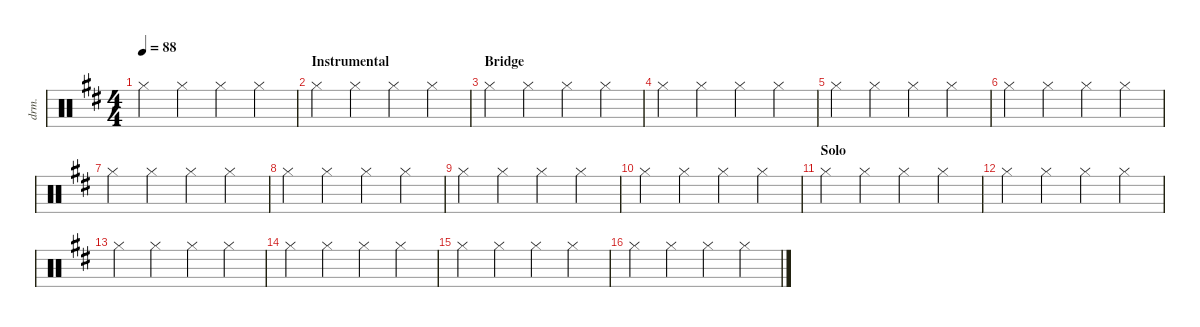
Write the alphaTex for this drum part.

\defaultSystemsLayout 4
\hideDynamics
\bracketExtendMode nobrackets
\otherSystemsTrackNameOrientation horizontal
\track ("Drumkit" "drm.") {instrument percussion}
\staff {score}
\articulation defaults
\ts (4 4)
\tempo 88
\clef neutral
\ks d "Hi-Hat (closed)"{acc forcenatural}.4{dy mf beam Down} "Hi-Hat (closed)"{acc forcenatural}.4{beam Down} "Hi-Hat (closed)"{acc forcenatural}.4{beam Down} "Hi-Hat (closed)"{acc forcenatural}.4{beam Down}
|
\section ("" "Instrumental")
"Hi-Hat (closed)"{acc forcenatural}.4{beam Down} "Hi-Hat (closed)"{acc forcenatural}.4{beam Down} "Hi-Hat (closed)"{acc forcenatural}.4{beam Down} "Hi-Hat (closed)"{acc forcenatural}.4{beam Down} |
\section ("" "Bridge")
"Hi-Hat (closed)"{acc forcenatural}.4{beam Down} "Hi-Hat (closed)"{acc forcenatural}.4{beam Down} "Hi-Hat (closed)"{acc forcenatural}.4{beam Down} "Hi-Hat (closed)"{acc forcenatural}.4{beam Down} |
"Hi-Hat (closed)"{acc forcenatural}.4{beam Down} "Hi-Hat (closed)"{acc forcenatural}.4{beam Down} "Hi-Hat (closed)"{acc forcenatural}.4{beam Down} "Hi-Hat (closed)"{acc forcenatural}.4{beam Down} |
"Hi-Hat (closed)"{acc forcenatural}.4{beam Down} "Hi-Hat (closed)"{acc forcenatural}.4{beam Down} "Hi-Hat (closed)"{acc forcenatural}.4{beam Down} "Hi-Hat (closed)"{acc forcenatural}.4{beam Down} |
"Hi-Hat (closed)"{acc forcenatural}.4{beam Down} "Hi-Hat (closed)"{acc forcenatural}.4{beam Down} "Hi-Hat (closed)"{acc forcenatural}.4{beam Down} "Hi-Hat (closed)"{acc forcenatural}.4{beam Down} |
"Hi-Hat (closed)"{acc forcenatural}.4{beam Down} "Hi-Hat (closed)"{acc forcenatural}.4{beam Down} "Hi-Hat (closed)"{acc forcenatural}.4{beam Down} "Hi-Hat (closed)"{acc forcenatural}.4{beam Down} |
"Hi-Hat (closed)"{acc forcenatural}.4{beam Down} "Hi-Hat (closed)"{acc forcenatural}.4{beam Down} "Hi-Hat (closed)"{acc forcenatural}.4{beam Down} "Hi-Hat (closed)"{acc forcenatural}.4{beam Down} |
"Hi-Hat (closed)"{acc forcenatural}.4{beam Down} "Hi-Hat (closed)"{acc forcenatural}.4{beam Down} "Hi-Hat (closed)"{acc forcenatural}.4{beam Down} "Hi-Hat (closed)"{acc forcenatural}.4{beam Down} |
"Hi-Hat (closed)"{acc forcenatural}.4{beam Down} "Hi-Hat (closed)"{acc forcenatural}.4{beam Down} "Hi-Hat (closed)"{acc forcenatural}.4{beam Down} "Hi-Hat (closed)"{acc forcenatural}.4{beam Down} |
\section ("" "Solo")
"Hi-Hat (closed)"{acc forcenatural}.4{beam Down} "Hi-Hat (closed)"{acc forcenatural}.4{beam Down} "Hi-Hat (closed)"{acc forcenatural}.4{beam Down} "Hi-Hat (closed)"{acc forcenatural}.4{beam Down} |
"Hi-Hat (closed)"{acc forcenatural}.4{beam Down} "Hi-Hat (closed)"{acc forcenatural}.4{beam Down} "Hi-Hat (closed)"{acc forcenatural}.4{beam Down} "Hi-Hat (closed)"{acc forcenatural}.4{beam Down} |
"Hi-Hat (closed)"{acc forcenatural}.4{beam Down} "Hi-Hat (closed)"{acc forcenatural}.4{beam Down} "Hi-Hat (closed)"{acc forcenatural}.4{beam Down} "Hi-Hat (closed)"{acc forcenatural}.4{beam Down} |
"Hi-Hat (closed)"{acc forcenatural}.4{beam Down} "Hi-Hat (closed)"{acc forcenatural}.4{beam Down} "Hi-Hat (closed)"{acc forcenatural}.4{beam Down} "Hi-Hat (closed)"{acc forcenatural}.4{beam Down} |
"Hi-Hat (closed)"{acc forcenatural}.4{beam Down} "Hi-Hat (closed)"{acc forcenatural}.4{beam Down} "Hi-Hat (closed)"{acc forcenatural}.4{beam Down} "Hi-Hat (closed)"{acc forcenatural}.4{beam Down} |
"Hi-Hat (closed)"{acc forcenatural}.4{beam Down} "Hi-Hat (closed)"{acc forcenatural}.4{beam Down} "Hi-Hat (closed)"{acc forcenatural}.4{beam Down} "Hi-Hat (closed)"{acc forcenatural}.4{beam Down}
